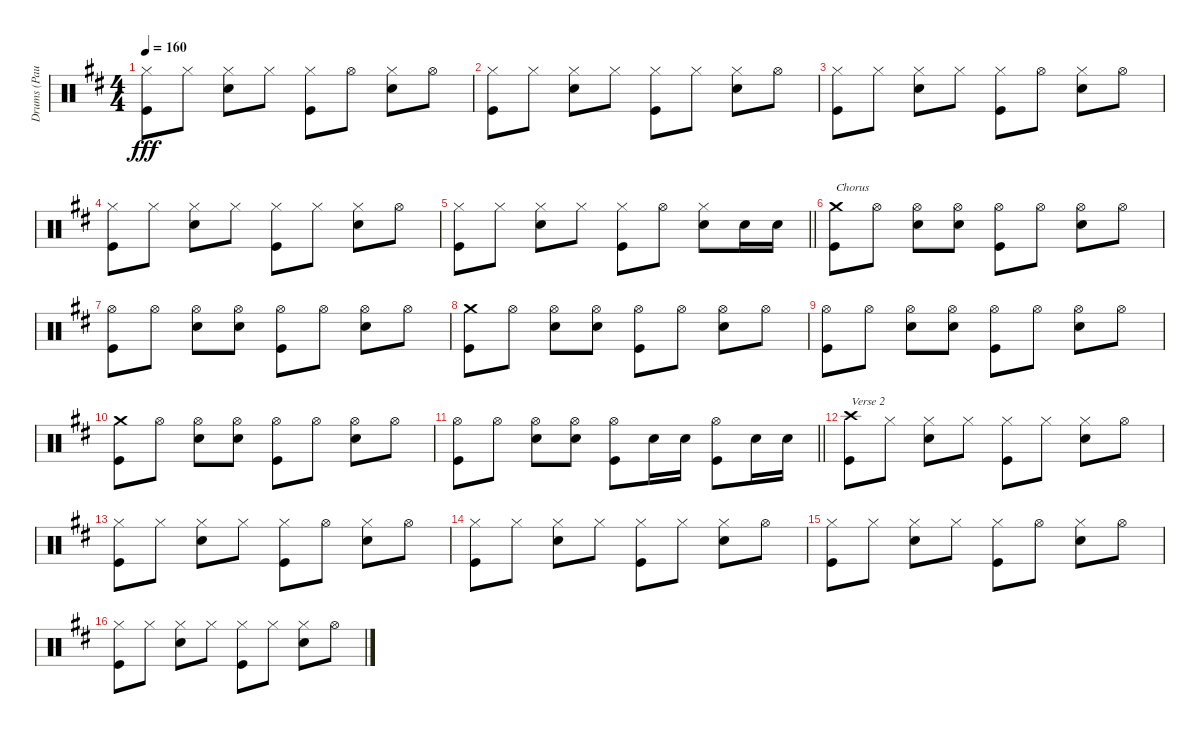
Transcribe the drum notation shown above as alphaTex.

\track ("Drums (Paul)" "Drums (Pau") {instrument percussion}
\staff {score}
\articulation defaults
\ts (4 4)
\tempo 160
\clef neutral
\ks d
("Hi-Hat (closed)" "Kick (hit)").8{dy fff} "Hi-Hat (closed)".8 ("Hi-Hat (closed)" "Electric Snare (hit)").8 "Hi-Hat (closed)".8 ("Hi-Hat (closed)" "Kick (hit)").8 "Hi-Hat (open)".8 ("Hi-Hat (closed)" "Electric Snare (hit)").8 "Hi-Hat (open)".8 |
("Hi-Hat (closed)" "Kick (hit)").8 "Hi-Hat (closed)".8 ("Hi-Hat (closed)" "Electric Snare (hit)").8 "Hi-Hat (closed)".8 ("Hi-Hat (closed)" "Kick (hit)").8 "Hi-Hat (closed)".8 ("Hi-Hat (closed)" "Electric Snare (hit)").8 "Hi-Hat (open)".8 |
("Hi-Hat (closed)" "Kick (hit)").8 "Hi-Hat (closed)".8 ("Hi-Hat (closed)" "Electric Snare (hit)").8 "Hi-Hat (closed)".8 ("Hi-Hat (closed)" "Kick (hit)").8 "Hi-Hat (open)".8 ("Hi-Hat (closed)" "Electric Snare (hit)").8 "Hi-Hat (open)".8 |
("Hi-Hat (closed)" "Kick (hit)").8 "Hi-Hat (closed)".8 ("Hi-Hat (closed)" "Electric Snare (hit)").8 "Hi-Hat (closed)".8 ("Hi-Hat (closed)" "Kick (hit)").8 "Hi-Hat (closed)".8 ("Hi-Hat (closed)" "Electric Snare (hit)").8 "Hi-Hat (open)".8 |
\barLineRight lightlight
("Hi-Hat (closed)" "Kick (hit)").8 "Hi-Hat (closed)".8 ("Hi-Hat (closed)" "Electric Snare (hit)").8 "Hi-Hat (closed)".8 ("Hi-Hat (closed)" "Kick (hit)").8 "Hi-Hat (open)".8 ("Hi-Hat (closed)" "Electric Snare (hit)").8 "Electric Snare (hit)".16 "Electric Snare (hit)".16 |
("Crash medium (hit)" "Kick (hit)").8{txt "Chorus"} "Hi-Hat (open)".8 ("Hi-Hat (open)" "Electric Snare (hit)").8 ("Hi-Hat (open)" "Electric Snare (hit)").8 ("Hi-Hat (open)" "Kick (hit)").8 "Hi-Hat (open)".8 ("Hi-Hat (open)" "Electric Snare (hit)").8 "Hi-Hat (open)".8 |
("Hi-Hat (open)" "Kick (hit)").8 "Hi-Hat (open)".8 ("Hi-Hat (open)" "Electric Snare (hit)").8 ("Hi-Hat (open)" "Electric Snare (hit)").8 ("Hi-Hat (open)" "Kick (hit)").8 "Hi-Hat (open)".8 ("Hi-Hat (open)" "Electric Snare (hit)").8 "Hi-Hat (open)".8 |
("Crash medium (hit)" "Kick (hit)").8 "Hi-Hat (open)".8 ("Hi-Hat (open)" "Electric Snare (hit)").8 ("Hi-Hat (open)" "Electric Snare (hit)").8 ("Hi-Hat (open)" "Kick (hit)").8 "Hi-Hat (open)".8 ("Hi-Hat (open)" "Electric Snare (hit)").8 "Hi-Hat (open)".8 |
("Hi-Hat (open)" "Kick (hit)").8 "Hi-Hat (open)".8 ("Hi-Hat (open)" "Electric Snare (hit)").8 ("Hi-Hat (open)" "Electric Snare (hit)").8 ("Hi-Hat (open)" "Kick (hit)").8 "Hi-Hat (open)".8 ("Hi-Hat (open)" "Electric Snare (hit)").8 "Hi-Hat (open)".8 |
("Crash medium (hit)" "Kick (hit)").8 "Hi-Hat (open)".8 ("Hi-Hat (open)" "Electric Snare (hit)").8 ("Hi-Hat (open)" "Electric Snare (hit)").8 ("Hi-Hat (open)" "Kick (hit)").8 "Hi-Hat (open)".8 ("Hi-Hat (open)" "Electric Snare (hit)").8 "Hi-Hat (open)".8 |
\barLineRight lightlight
("Hi-Hat (open)" "Kick (hit)").8 "Hi-Hat (open)".8 ("Hi-Hat (open)" "Electric Snare (hit)").8 ("Hi-Hat (open)" "Electric Snare (hit)").8 ("Hi-Hat (open)" "Kick (hit)").8 "Electric Snare (hit)".16 "Electric Snare (hit)".16 ("Hi-Hat (open)" "Kick (hit)").8 "Electric Snare (hit)".16 "Electric Snare (hit)".16 |
("Crash high (hit)" "Kick (hit)").8{txt "Verse 2"} "Hi-Hat (closed)".8 ("Hi-Hat (closed)" "Electric Snare (hit)").8 "Hi-Hat (closed)".8 ("Hi-Hat (closed)" "Kick (hit)").8 "Hi-Hat (closed)".8 ("Hi-Hat (closed)" "Electric Snare (hit)").8 "Hi-Hat (open)".8 |
("Hi-Hat (closed)" "Kick (hit)").8 "Hi-Hat (closed)".8 ("Hi-Hat (closed)" "Electric Snare (hit)").8 "Hi-Hat (closed)".8 ("Hi-Hat (closed)" "Kick (hit)").8 "Hi-Hat (open)".8 ("Hi-Hat (closed)" "Electric Snare (hit)").8 "Hi-Hat (open)".8 |
("Hi-Hat (closed)" "Kick (hit)").8 "Hi-Hat (closed)".8 ("Hi-Hat (closed)" "Electric Snare (hit)").8 "Hi-Hat (closed)".8 ("Hi-Hat (closed)" "Kick (hit)").8 "Hi-Hat (closed)".8 ("Hi-Hat (closed)" "Electric Snare (hit)").8 "Hi-Hat (open)".8 |
("Hi-Hat (closed)" "Kick (hit)").8 "Hi-Hat (closed)".8 ("Hi-Hat (closed)" "Electric Snare (hit)").8 "Hi-Hat (closed)".8 ("Hi-Hat (closed)" "Kick (hit)").8 "Hi-Hat (open)".8 ("Hi-Hat (closed)" "Electric Snare (hit)").8 "Hi-Hat (open)".8 |
("Hi-Hat (closed)" "Kick (hit)").8 "Hi-Hat (closed)".8 ("Hi-Hat (closed)" "Electric Snare (hit)").8 "Hi-Hat (closed)".8 ("Hi-Hat (closed)" "Kick (hit)").8 "Hi-Hat (closed)".8 ("Hi-Hat (closed)" "Electric Snare (hit)").8 "Hi-Hat (open)".8
